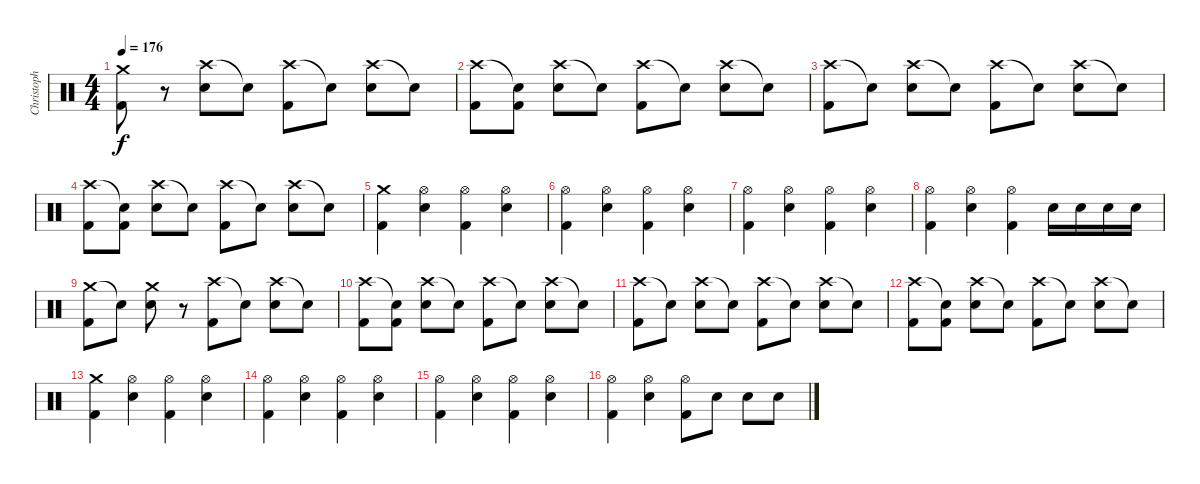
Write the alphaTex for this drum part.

\track ("Christoph" "Christoph") {instrument percussion}
\staff {score}
\articulation defaults
\ts (4 4)
\tempo 176
\clef neutral
\ks c
("Crash medium (hit)" "Kick (hit) 2").8{dy f} r.8 ("Crash high (hit)" "Snare (hit) 2").8 "Snare (hit)"{t}.8 ("Crash high (hit)" "Kick (hit) 2").8 "Snare (hit)"{t}.8 ("Crash high (hit)" "Snare (hit) 2").8 "Snare (hit)"{t}.8 |
("Crash high (hit)" "Kick (hit) 2").8 ("Snare (hit)"{t} "Kick (hit) 2").8 ("Crash high (hit)" "Snare (hit) 2").8 "Snare (hit)"{t}.8 ("Crash high (hit)" "Kick (hit) 2").8 "Snare (hit)"{t}.8 ("Crash high (hit)" "Snare (hit) 2").8 "Snare (hit)"{t}.8 |
("Crash high (hit)" "Kick (hit) 2").8 "Snare (hit)"{t}.8 ("Crash high (hit)" "Snare (hit) 2").8 "Snare (hit)"{t}.8 ("Crash high (hit)" "Kick (hit) 2").8 "Snare (hit)"{t}.8 ("Crash high (hit)" "Snare (hit) 2").8 "Snare (hit)"{t}.8 |
("Crash high (hit)" "Kick (hit) 2").8 ("Snare (hit)"{t} "Kick (hit) 2").8 ("Crash high (hit)" "Snare (hit) 2").8 "Snare (hit)"{t}.8 ("Crash high (hit)" "Kick (hit) 2").8 "Snare (hit)"{t}.8 ("Crash high (hit)" "Snare (hit) 2").8 "Snare (hit)"{t}.8 |
("Crash medium (hit)" "Kick (hit) 2").4 ("Hi-Hat (open)" "Snare (hit) 2").4 ("Hi-Hat (open)" "Kick (hit) 2").4 ("Hi-Hat (open)" "Snare (hit) 2").4 |
("Hi-Hat (open)" "Kick (hit) 2").4 ("Hi-Hat (open)" "Snare (hit) 2").4 ("Hi-Hat (open)" "Kick (hit) 2").4 ("Hi-Hat (open)" "Snare (hit) 2").4 |
("Hi-Hat (open)" "Kick (hit) 2").4 ("Hi-Hat (open)" "Snare (hit) 2").4 ("Hi-Hat (open)" "Kick (hit) 2").4 ("Hi-Hat (open)" "Snare (hit) 2").4 |
("Hi-Hat (open)" "Kick (hit) 2").4 ("Hi-Hat (open)" "Snare (hit) 2").4 ("Hi-Hat (open)" "Kick (hit) 2").4 "Snare (hit) 2".16 "Snare (hit) 2".16 "Snare (hit) 2".16 "Snare (hit) 2".16 |
("Crash medium (hit)" "Kick (hit) 2").8 "Snare (hit)"{t}.8 ("Crash medium (hit)" "Snare (hit) 2").8 r.8 ("Crash high (hit)" "Kick (hit) 2").8 "Snare (hit)"{t}.8 ("Crash high (hit)" "Snare (hit) 2").8 "Snare (hit)"{t}.8 |
("Crash high (hit)" "Kick (hit) 2").8 ("Snare (hit)"{t} "Kick (hit) 2").8 ("Crash high (hit)" "Snare (hit) 2").8 "Snare (hit)"{t}.8 ("Crash high (hit)" "Kick (hit) 2").8 "Snare (hit)"{t}.8 ("Crash high (hit)" "Snare (hit) 2").8 "Snare (hit)"{t}.8 |
("Crash high (hit)" "Kick (hit) 2").8 "Snare (hit)"{t}.8 ("Crash high (hit)" "Snare (hit) 2").8 "Snare (hit)"{t}.8 ("Crash high (hit)" "Kick (hit) 2").8 "Snare (hit)"{t}.8 ("Crash high (hit)" "Snare (hit) 2").8 "Snare (hit)"{t}.8 |
("Crash high (hit)" "Kick (hit) 2").8 ("Snare (hit)"{t} "Kick (hit) 2").8 ("Crash high (hit)" "Snare (hit) 2").8 "Snare (hit)"{t}.8 ("Crash high (hit)" "Kick (hit) 2").8 "Snare (hit)"{t}.8 ("Crash high (hit)" "Snare (hit) 2").8 "Snare (hit)"{t}.8 |
("Crash medium (hit)" "Kick (hit) 2").4 ("Hi-Hat (open)" "Snare (hit) 2").4 ("Hi-Hat (open)" "Kick (hit) 2").4 ("Hi-Hat (open)" "Snare (hit) 2").4 |
("Hi-Hat (open)" "Kick (hit) 2").4 ("Hi-Hat (open)" "Snare (hit) 2").4 ("Hi-Hat (open)" "Kick (hit) 2").4 ("Hi-Hat (open)" "Snare (hit) 2").4 |
("Hi-Hat (open)" "Kick (hit) 2").4 ("Hi-Hat (open)" "Snare (hit) 2").4 ("Hi-Hat (open)" "Kick (hit) 2").4 ("Hi-Hat (open)" "Snare (hit) 2").4 |
("Hi-Hat (open)" "Kick (hit) 2").4 ("Hi-Hat (open)" "Snare (hit) 2").4 ("Hi-Hat (open)" "Kick (hit) 2").8 "Snare (hit) 2".8 "Snare (hit) 2".8 "Snare (hit) 2".8
